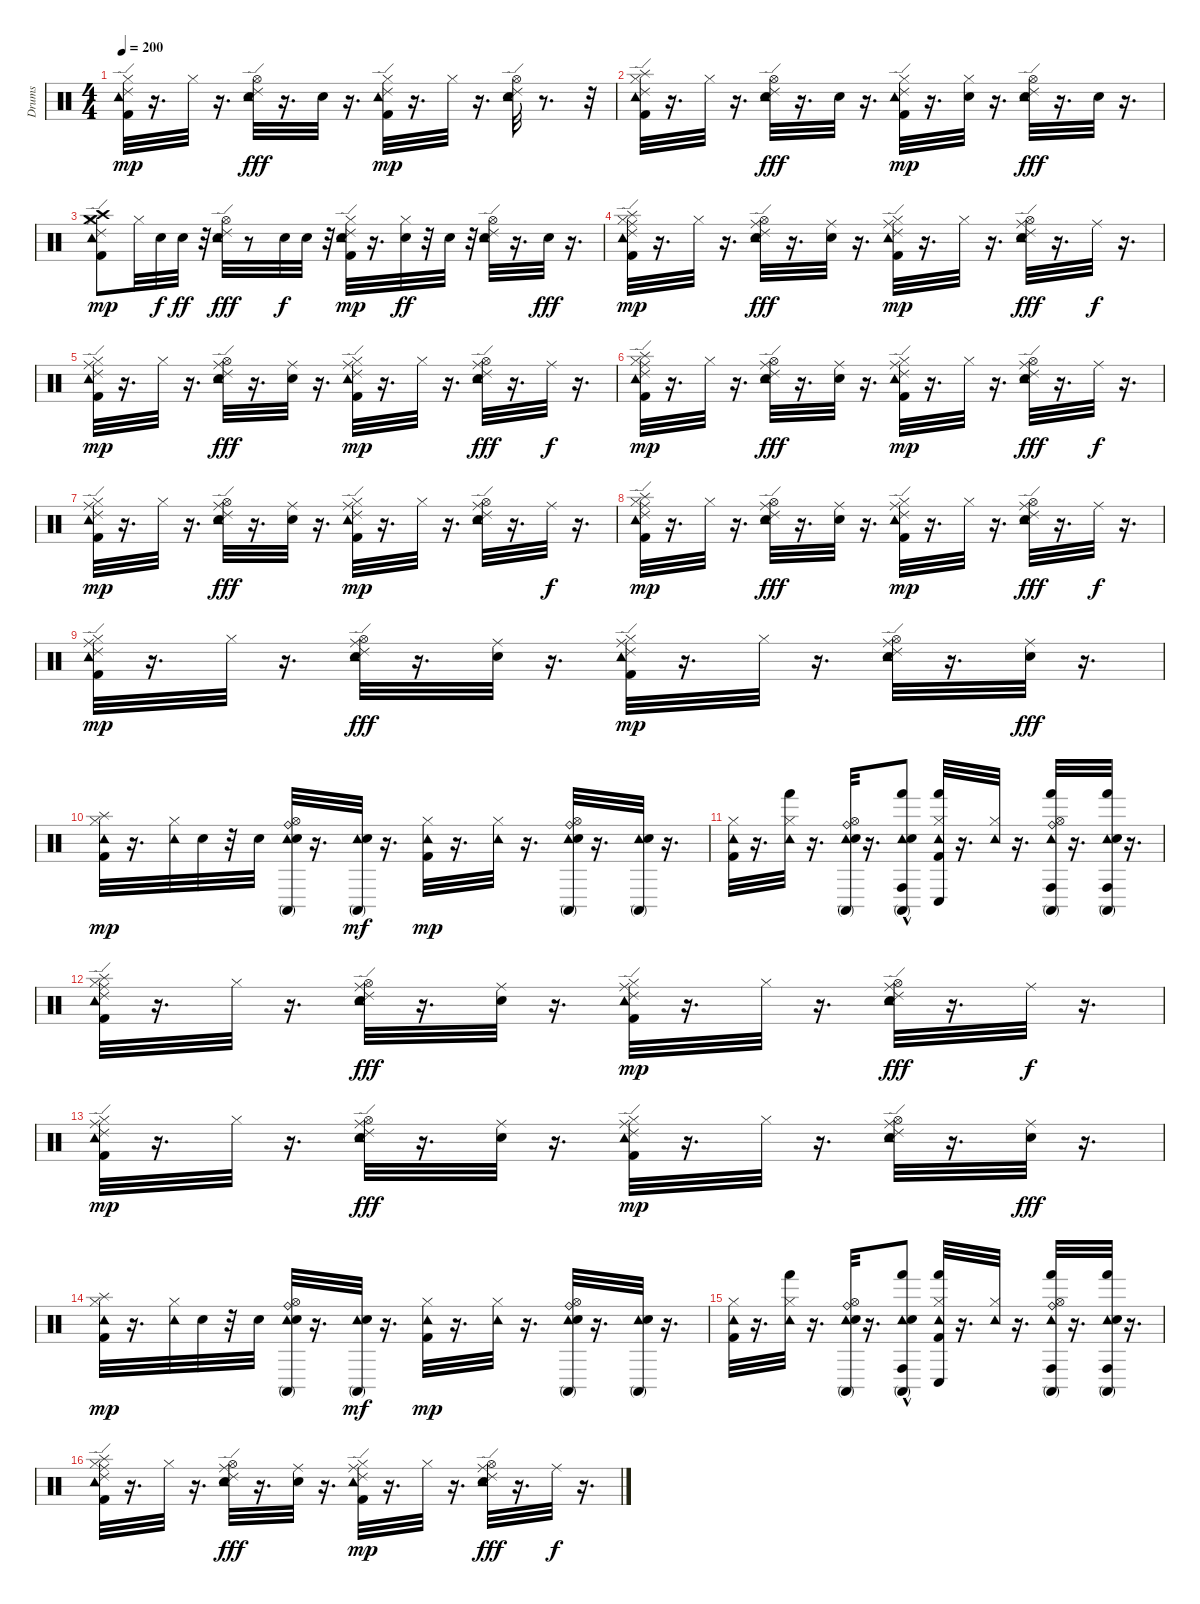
\track ("Drums" "Drums") {instrument percussion}
\staff {score}
\articulation defaults
\ts (4 4)
\tempo 200
\clef neutral
\ks c
("Tambourine (hit)" "Hi-Hat (closed)" "Kick (hit) 2" "Ride (edge) 2").32{dy mp} r.16{d} "Hi-Hat (closed)".32 r.16{d} ("Ride (edge) 2" "Hi-Hat (open)" "Electric Snare (hit)" "Tambourine (hit)").32{dy fff} r.16{d} "Electric Snare (hit)".32 r.16{d} ("Tambourine (hit)" "Kick (hit) 2" "Hi-Hat (closed)" "Ride (edge) 2").32{dy mp} r.16{d} "Hi-Hat (closed)".32 r.16{d} ("Tambourine (hit)" "Hi-Hat (open)" "Electric Snare (hit)" "Ride (edge) 2").32 r.8{d} r.32 |
("Ride (edge) 2" "Tambourine (hit)" "Hi-Hat (closed)" "Kick (hit) 2" "Splash (hit)").32 r.16{d} "Hi-Hat (closed)".32 r.16{d} ("Ride (edge) 2" "Tambourine (hit)" "Hi-Hat (open)" "Electric Snare (hit)").32{dy fff} r.16{d} "Electric Snare (hit)".32 r.16{d} ("Ride (edge) 2" "Tambourine (hit)" "Kick (hit) 2" "Hi-Hat (closed)").32{dy mp} r.16{d} ("Electric Snare (hit)" "Hi-Hat (closed)").32 r.16{d} ("Ride (edge) 2" "Tambourine (hit)" "Hi-Hat (open)" "Electric Snare (hit)").32{dy fff} r.16{d} "Electric Snare (hit)".32 r.16{d} |
("Crash high (hit)" "Crash medium (hit)" "Tambourine (hit)" "Hi-Hat (closed)" "Kick (hit) 2" "Ride (edge) 2").8{dy mp} "Hi-Hat (closed)".32 "Electric Snare (hit)".32{dy f} "Electric Snare (hit)".32{dy ff} r.32 ("Ride (edge) 2" "Hi-Hat (open)" "Electric Snare (hit)" "Tambourine (hit)").32{dy fff} r.8 "Electric Snare (hit)".32{dy f} "Electric Snare (hit)".32 r.32 ("Electric Snare (hit)" "Tambourine (hit)" "Kick (hit) 2" "Hi-Hat (closed)" "Ride (edge) 2").32{dy mp} r.16{d} ("Hi-Hat (closed)" "Electric Snare (hit)").32{dy ff} r.32 "Electric Snare (hit)".32 r.32 ("Tambourine (hit)" "Hi-Hat (open)" "Electric Snare (hit)" "Ride (edge) 2").32 r.16{d} "Electric Snare (hit)".32{dy fff} r.16{d} |
("Ride (middle)" "Ride (edge) 2" "Tambourine (hit)" "Hi-Hat (closed)" "Kick (hit) 2" "Splash (hit)").32{dy mp} r.16{d} "Hi-Hat (closed)".32 r.16{d} ("Ride (middle)" "Ride (edge) 2" "Tambourine (hit)" "Hi-Hat (open)" "Electric Snare (hit)").32{dy fff} r.16{d} ("Ride (middle)" "Electric Snare (hit)").32 r.16{d} ("Ride (middle)" "Ride (edge) 2" "Tambourine (hit)" "Kick (hit) 2" "Hi-Hat (closed)").32{dy mp} r.16{d} "Hi-Hat (closed)".32 r.16{d} ("Ride (middle)" "Ride (edge) 2" "Tambourine (hit)" "Hi-Hat (open)" "Electric Snare (hit)").32{dy fff} r.16{d} "Ride (middle)".32{dy f} r.16{d} |
("Ride (middle)" "Ride (edge) 2" "Tambourine (hit)" "Hi-Hat (closed)" "Kick (hit) 2").32{dy mp} r.16{d} "Hi-Hat (closed)".32 r.16{d} ("Ride (middle)" "Ride (edge) 2" "Tambourine (hit)" "Hi-Hat (open)" "Electric Snare (hit)").32{dy fff} r.16{d} ("Ride (middle)" "Electric Snare (hit)").32 r.16{d} ("Ride (middle)" "Ride (edge) 2" "Tambourine (hit)" "Kick (hit) 2" "Hi-Hat (closed)").32{dy mp} r.16{d} "Hi-Hat (closed)".32 r.16{d} ("Ride (middle)" "Ride (edge) 2" "Tambourine (hit)" "Hi-Hat (open)" "Electric Snare (hit)").32{dy fff} r.16{d} "Ride (middle)".32{dy f} r.16{d} |
("Ride (middle)" "Ride (edge) 2" "Tambourine (hit)" "Hi-Hat (closed)" "Kick (hit) 2" "Splash (hit)").32{dy mp} r.16{d} "Hi-Hat (closed)".32 r.16{d} ("Ride (middle)" "Ride (edge) 2" "Tambourine (hit)" "Hi-Hat (open)" "Electric Snare (hit)").32{dy fff} r.16{d} ("Ride (middle)" "Electric Snare (hit)").32 r.16{d} ("Ride (middle)" "Ride (edge) 2" "Tambourine (hit)" "Kick (hit) 2" "Hi-Hat (closed)").32{dy mp} r.16{d} "Hi-Hat (closed)".32 r.16{d} ("Ride (middle)" "Ride (edge) 2" "Tambourine (hit)" "Hi-Hat (open)" "Electric Snare (hit)").32{dy fff} r.16{d} "Ride (middle)".32{dy f} r.16{d} |
("Ride (middle)" "Tambourine (hit)" "Hi-Hat (closed)" "Kick (hit) 2" "Ride (edge) 2").32{dy mp} r.16{d} "Hi-Hat (closed)".32 r.16{d} ("Ride (middle)" "Ride (edge) 2" "Hi-Hat (open)" "Electric Snare (hit)" "Tambourine (hit)").32{dy fff} r.16{d} ("Ride (middle)" "Electric Snare (hit)").32 r.16{d} ("Ride (middle)" "Tambourine (hit)" "Kick (hit) 2" "Hi-Hat (closed)" "Ride (edge) 2").32{dy mp} r.16{d} "Hi-Hat (closed)".32 r.16{d} ("Ride (middle)" "Tambourine (hit)" "Hi-Hat (open)" "Electric Snare (hit)" "Ride (edge) 2").32 r.16{d} "Ride (middle)".32{dy f} r.16{d} |
("Ride (middle)" "Ride (edge) 2" "Tambourine (hit)" "Hi-Hat (closed)" "Kick (hit) 2" "Splash (hit)").32{dy mp} r.16{d} "Hi-Hat (closed)".32 r.16{d} ("Ride (middle)" "Ride (edge) 2" "Tambourine (hit)" "Hi-Hat (open)" "Electric Snare (hit)").32{dy fff} r.16{d} ("Ride (middle)" "Electric Snare (hit)").32 r.16{d} ("Ride (middle)" "Ride (edge) 2" "Tambourine (hit)" "Kick (hit) 2" "Hi-Hat (closed)").32{dy mp} r.16{d} "Hi-Hat (closed)".32 r.16{d} ("Ride (middle)" "Ride (edge) 2" "Tambourine (hit)" "Hi-Hat (open)" "Electric Snare (hit)").32{dy fff} r.16{d} "Ride (middle)".32{dy f} r.16{d} |
("Ride (middle)" "Tambourine (hit)" "Hi-Hat (closed)" "Kick (hit) 2" "Ride (edge) 2").32{dy mp} r.16{d} "Hi-Hat (closed)".32 r.16{d} ("Ride (middle)" "Ride (edge) 2" "Hi-Hat (open)" "Electric Snare (hit)" "Tambourine (hit)").32{dy fff} r.16{d} ("Ride (middle)" "Electric Snare (hit)").32 r.16{d} ("Ride (middle)" "Tambourine (hit)" "Kick (hit) 2" "Hi-Hat (closed)" "Ride (edge) 2").32{dy mp} r.16{d} "Hi-Hat (closed)".32 r.16{d} ("Ride (middle)" "Tambourine (hit)" "Hi-Hat (open)" "Electric Snare (hit)" "Ride (edge) 2").32 r.16{d} ("Electric Snare (hit)" "Ride (middle)").32{dy fff} r.16{d} |
("Splash (hit)" "Kick (hit) 2" "Hi-Hat (closed)" "Tambourine (hit)").32{dy mp} r.16{d} ("Tambourine (hit)" "Hi-Hat (closed)").32 "Electric Snare (hit)".32 r.32 "Electric Snare (hit)".32 ("Tambourine (hit)" "Hi-Hat (open)" "Ride (bell)" "Electric Snare (hit)" "Conga high (mute)").32 r.16{d} ("Tambourine (hit)" "Conga high (mute)" "Electric Snare (hit)").32{dy mf} r.16{d} ("Tambourine (hit)" "Hi-Hat (closed)" "Kick (hit) 2").32{dy mp} r.16{d} ("Tambourine (hit)" "Hi-Hat (closed)").32 r.16{d} ("Tambourine (hit)" "Ride (bell)" "Hi-Hat (open)" "Conga high (mute)" "Electric Snare (hit)").32 r.16{d} ("Tambourine (hit)" "Conga high (mute)" "Electric Snare (hit)").32 r.16{d} |
("Tambourine (hit)" "Hi-Hat (closed)" "Kick (hit) 2").32 r.16{d} ("Hand (hit)" "Tambourine (hit)" "Hi-Hat (closed)").32 r.16{d} ("Tambourine (hit)" "Ride (bell)" "Hi-Hat (open)" "Conga high (mute)" "Electric Snare (hit)").32 r.16{d} ("Conga high (hit)" "Hand (hit)" "Tambourine (hit)" "Conga high (mute)" "Electric Snare (hit)"{hac}).8 ("Conga low (hit)" "Hand (hit)" "Tambourine (hit)" "Hi-Hat (closed)" "Kick (hit) 2").32 r.16{d} ("Tambourine (hit)" "Hi-Hat (closed)").32 r.16{d} ("Conga high (hit)" "Hand (hit)" "Tambourine (hit)" "Ride (bell)" "Hi-Hat (open)" "Conga high (mute)").32 r.16{d} ("Conga high (hit)" "Hand (hit)" "Tambourine (hit)" "Conga high (mute)" "Electric Snare (hit)").32 r.16{d} |
("Ride (middle)" "Ride (edge) 2" "Tambourine (hit)" "Hi-Hat (closed)" "Kick (hit) 2" "Splash (hit)").32 r.16{d} "Hi-Hat (closed)".32 r.16{d} ("Ride (middle)" "Ride (edge) 2" "Tambourine (hit)" "Hi-Hat (open)" "Electric Snare (hit)").32{dy fff} r.16{d} ("Ride (middle)" "Electric Snare (hit)").32 r.16{d} ("Ride (middle)" "Ride (edge) 2" "Tambourine (hit)" "Kick (hit) 2" "Hi-Hat (closed)").32{dy mp} r.16{d} "Hi-Hat (closed)".32 r.16{d} ("Ride (middle)" "Ride (edge) 2" "Tambourine (hit)" "Hi-Hat (open)" "Electric Snare (hit)").32{dy fff} r.16{d} "Ride (middle)".32{dy f} r.16{d} |
("Ride (middle)" "Tambourine (hit)" "Hi-Hat (closed)" "Kick (hit) 2" "Ride (edge) 2").32{dy mp} r.16{d} "Hi-Hat (closed)".32 r.16{d} ("Ride (middle)" "Ride (edge) 2" "Hi-Hat (open)" "Electric Snare (hit)" "Tambourine (hit)").32{dy fff} r.16{d} ("Ride (middle)" "Electric Snare (hit)").32 r.16{d} ("Ride (middle)" "Tambourine (hit)" "Kick (hit) 2" "Hi-Hat (closed)" "Ride (edge) 2").32{dy mp} r.16{d} "Hi-Hat (closed)".32 r.16{d} ("Ride (middle)" "Tambourine (hit)" "Hi-Hat (open)" "Electric Snare (hit)" "Ride (edge) 2").32 r.16{d} ("Electric Snare (hit)" "Ride (middle)").32{dy fff} r.16{d} |
("Splash (hit)" "Kick (hit) 2" "Hi-Hat (closed)" "Tambourine (hit)").32{dy mp} r.16{d} ("Tambourine (hit)" "Hi-Hat (closed)").32 "Electric Snare (hit)".32 r.32 "Electric Snare (hit)".32 ("Tambourine (hit)" "Hi-Hat (open)" "Ride (bell)" "Electric Snare (hit)" "Conga high (mute)").32 r.16{d} ("Tambourine (hit)" "Conga high (mute)" "Electric Snare (hit)").32{dy mf} r.16{d} ("Tambourine (hit)" "Hi-Hat (closed)" "Kick (hit) 2").32{dy mp} r.16{d} ("Tambourine (hit)" "Hi-Hat (closed)").32 r.16{d} ("Tambourine (hit)" "Ride (bell)" "Hi-Hat (open)" "Conga high (mute)" "Electric Snare (hit)").32 r.16{d} ("Tambourine (hit)" "Conga high (mute)" "Electric Snare (hit)").32 r.16{d} |
("Tambourine (hit)" "Hi-Hat (closed)" "Kick (hit) 2").32 r.16{d} ("Hand (hit)" "Tambourine (hit)" "Hi-Hat (closed)").32 r.16{d} ("Tambourine (hit)" "Ride (bell)" "Hi-Hat (open)" "Conga high (mute)" "Electric Snare (hit)").32 r.16{d} ("Conga high (hit)" "Hand (hit)" "Tambourine (hit)" "Conga high (mute)" "Electric Snare (hit)"{hac}).8 ("Conga low (hit)" "Hand (hit)" "Tambourine (hit)" "Hi-Hat (closed)" "Kick (hit) 2").32 r.16{d} ("Tambourine (hit)" "Hi-Hat (closed)").32 r.16{d} ("Conga high (hit)" "Hand (hit)" "Tambourine (hit)" "Ride (bell)" "Hi-Hat (open)" "Conga high (mute)").32 r.16{d} ("Conga high (hit)" "Hand (hit)" "Tambourine (hit)" "Conga high (mute)" "Electric Snare (hit)").32 r.16{d} |
("Ride (middle)" "Ride (edge) 2" "Tambourine (hit)" "Hi-Hat (closed)" "Kick (hit) 2" "Splash (hit)").32 r.16{d} "Hi-Hat (closed)".32 r.16{d} ("Ride (middle)" "Ride (edge) 2" "Tambourine (hit)" "Hi-Hat (open)" "Electric Snare (hit)").32{dy fff} r.16{d} ("Ride (middle)" "Electric Snare (hit)").32 r.16{d} ("Ride (middle)" "Ride (edge) 2" "Tambourine (hit)" "Kick (hit) 2" "Hi-Hat (closed)").32{dy mp} r.16{d} "Hi-Hat (closed)".32 r.16{d} ("Ride (middle)" "Ride (edge) 2" "Tambourine (hit)" "Hi-Hat (open)" "Electric Snare (hit)").32{dy fff} r.16{d} "Ride (middle)".32{dy f} r.16{d}
